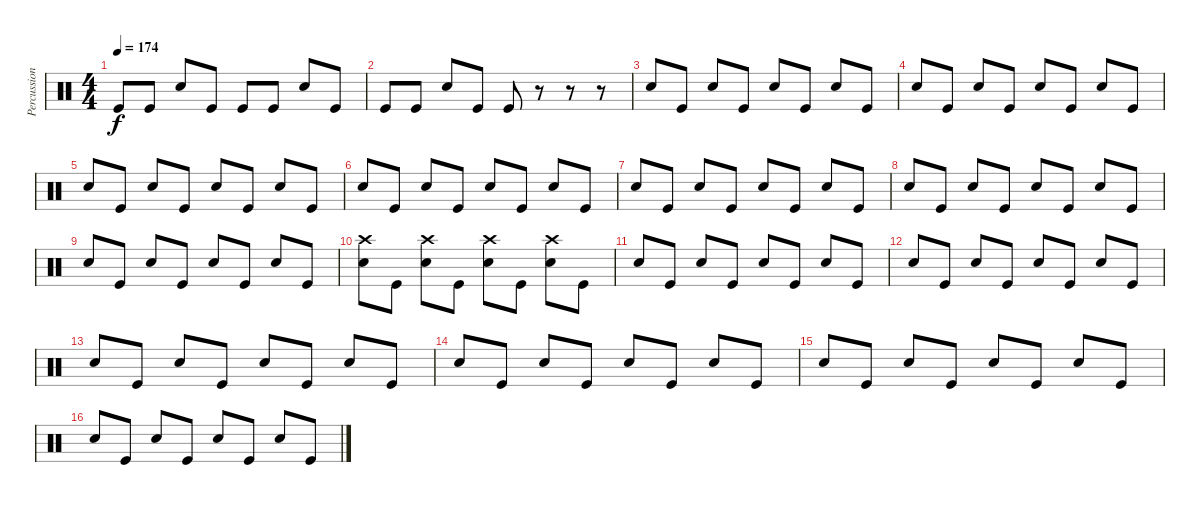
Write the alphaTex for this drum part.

\track ("Percussion" "Percussion") {instrument percussion}
\staff {score}
\articulation defaults
\ts (4 4)
\tempo 174
\clef neutral
\ks c "Kick (hit)".8{dy f} "Kick (hit)".8 "Electric Snare (hit)".8 "Kick (hit)".8 "Kick (hit)".8 "Kick (hit)".8 "Electric Snare (hit)".8 "Kick (hit)".8
|
"Kick (hit)".8 "Kick (hit)".8 "Electric Snare (hit)".8 "Kick (hit)".8 "Kick (hit)".8 r.8 r.8 r.8 |
"Electric Snare (hit)".8 "Kick (hit)".8 "Electric Snare (hit)".8 "Kick (hit)".8 "Electric Snare (hit)".8 "Kick (hit)".8 "Electric Snare (hit)".8 "Kick (hit)".8 |
"Electric Snare (hit)".8 "Kick (hit)".8 "Electric Snare (hit)".8 "Kick (hit)".8 "Electric Snare (hit)".8 "Kick (hit)".8 "Electric Snare (hit)".8 "Kick (hit)".8 |
"Electric Snare (hit)".8 "Kick (hit)".8 "Electric Snare (hit)".8 "Kick (hit)".8 "Electric Snare (hit)".8 "Kick (hit)".8 "Electric Snare (hit)".8 "Kick (hit)".8 |
"Electric Snare (hit)".8 "Kick (hit)".8 "Electric Snare (hit)".8 "Kick (hit)".8 "Electric Snare (hit)".8 "Kick (hit)".8 "Electric Snare (hit)".8 "Kick (hit)".8 |
"Electric Snare (hit)".8 "Kick (hit)".8 "Electric Snare (hit)".8 "Kick (hit)".8 "Electric Snare (hit)".8 "Kick (hit)".8 "Electric Snare (hit)".8 "Kick (hit)".8 |
"Electric Snare (hit)".8 "Kick (hit)".8 "Electric Snare (hit)".8 "Kick (hit)".8 "Electric Snare (hit)".8 "Kick (hit)".8 "Electric Snare (hit)".8 "Kick (hit)".8 |
"Electric Snare (hit)".8 "Kick (hit)".8 "Electric Snare (hit)".8 "Kick (hit)".8 "Electric Snare (hit)".8 "Kick (hit)".8 "Electric Snare (hit)".8 "Kick (hit)".8 |
("Crash high (hit)" "Electric Snare (hit)").8 "Kick (hit)".8 ("Crash high (hit)" "Electric Snare (hit)").8 "Kick (hit)".8 ("Crash high (hit)" "Electric Snare (hit)").8 "Kick (hit)".8 ("Crash high (hit)" "Electric Snare (hit)").8 "Kick (hit)".8 |
"Electric Snare (hit)".8 "Kick (hit)".8 "Electric Snare (hit)".8 "Kick (hit)".8 "Electric Snare (hit)".8 "Kick (hit)".8 "Electric Snare (hit)".8 "Kick (hit)".8 |
"Electric Snare (hit)".8 "Kick (hit)".8 "Electric Snare (hit)".8 "Kick (hit)".8 "Electric Snare (hit)".8 "Kick (hit)".8 "Electric Snare (hit)".8 "Kick (hit)".8 |
"Electric Snare (hit)".8 "Kick (hit)".8 "Electric Snare (hit)".8 "Kick (hit)".8 "Electric Snare (hit)".8 "Kick (hit)".8 "Electric Snare (hit)".8 "Kick (hit)".8 |
"Electric Snare (hit)".8 "Kick (hit)".8 "Electric Snare (hit)".8 "Kick (hit)".8 "Electric Snare (hit)".8 "Kick (hit)".8 "Electric Snare (hit)".8 "Kick (hit)".8 |
"Electric Snare (hit)".8 "Kick (hit)".8 "Electric Snare (hit)".8 "Kick (hit)".8 "Electric Snare (hit)".8 "Kick (hit)".8 "Electric Snare (hit)".8 "Kick (hit)".8 |
"Electric Snare (hit)".8 "Kick (hit)".8 "Electric Snare (hit)".8 "Kick (hit)".8 "Electric Snare (hit)".8 "Kick (hit)".8 "Electric Snare (hit)".8 "Kick (hit)".8
